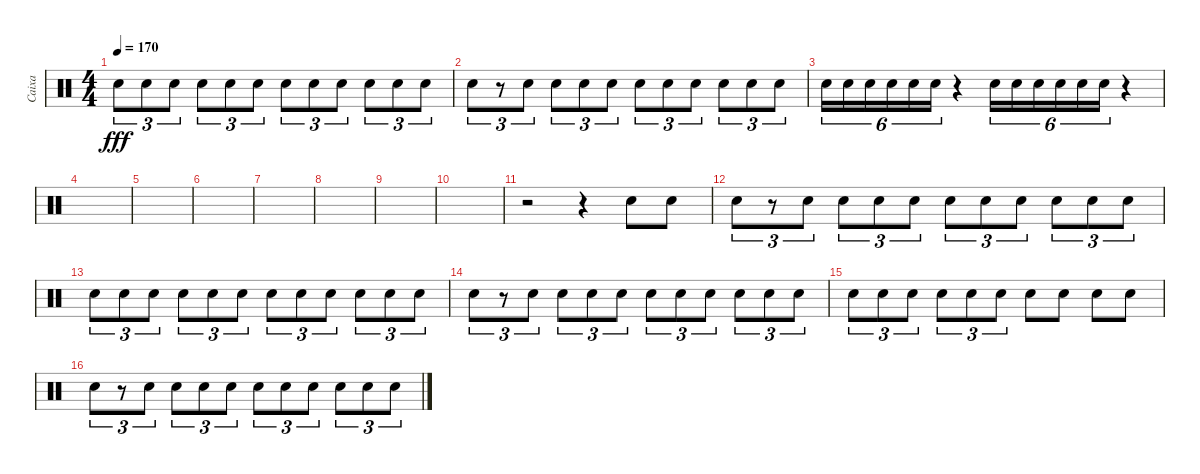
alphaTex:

\track ("Caixa" "Caixa") {instrument percussion}
\staff {score}
\articulation defaults
\ts (4 4)
\tempo 170
\clef neutral
\ks c "Electric Snare (hit)".8{tu (3 2) dy fff} "Electric Snare (hit)".8{tu (3 2)} "Electric Snare (hit)".8{tu (3 2)} "Electric Snare (hit)".8{tu (3 2)} "Electric Snare (hit)".8{tu (3 2)} "Electric Snare (hit)".8{tu (3 2)} "Electric Snare (hit)".8{tu (3 2)} "Electric Snare (hit)".8{tu (3 2)} "Electric Snare (hit)".8{tu (3 2)} "Electric Snare (hit)".8{tu (3 2)} "Electric Snare (hit)".8{tu (3 2)} "Electric Snare (hit)".8{tu (3 2)}
|
"Electric Snare (hit)".8{tu (3 2)} r.8{tu (3 2)} "Electric Snare (hit)".8{tu (3 2)} "Electric Snare (hit)".8{tu (3 2)} "Electric Snare (hit)".8{tu (3 2)} "Electric Snare (hit)".8{tu (3 2)} "Electric Snare (hit)".8{tu (3 2)} "Electric Snare (hit)".8{tu (3 2)} "Electric Snare (hit)".8{tu (3 2)} "Electric Snare (hit)".8{tu (3 2)} "Electric Snare (hit)".8{tu (3 2)} "Electric Snare (hit)".8{tu (3 2)} |
"Electric Snare (hit)".16{tu (6 4)} "Electric Snare (hit)".16{tu (6 4)} "Electric Snare (hit)".16{tu (6 4)} "Electric Snare (hit)".16{tu (6 4)} "Electric Snare (hit)".16{tu (6 4)} "Electric Snare (hit)".16{tu (6 4)} r.4 "Electric Snare (hit)".16{tu (6 4)} "Electric Snare (hit)".16{tu (6 4)} "Electric Snare (hit)".16{tu (6 4)} "Electric Snare (hit)".16{tu (6 4)} "Electric Snare (hit)".16{tu (6 4)} "Electric Snare (hit)".16{tu (6 4)} r.4 |
|
|
|
|
|
|
|
r.2 r.4 "Electric Snare (hit)".8 "Electric Snare (hit)".8 |
"Electric Snare (hit)".8{tu (3 2)} r.8{tu (3 2)} "Electric Snare (hit)".8{tu (3 2)} "Electric Snare (hit)".8{tu (3 2)} "Electric Snare (hit)".8{tu (3 2)} "Electric Snare (hit)".8{tu (3 2)} "Electric Snare (hit)".8{tu (3 2)} "Electric Snare (hit)".8{tu (3 2)} "Electric Snare (hit)".8{tu (3 2)} "Electric Snare (hit)".8{tu (3 2)} "Electric Snare (hit)".8{tu (3 2)} "Electric Snare (hit)".8{tu (3 2)} |
"Electric Snare (hit)".8{tu (3 2)} "Electric Snare (hit)".8{tu (3 2)} "Electric Snare (hit)".8{tu (3 2)} "Electric Snare (hit)".8{tu (3 2)} "Electric Snare (hit)".8{tu (3 2)} "Electric Snare (hit)".8{tu (3 2)} "Electric Snare (hit)".8{tu (3 2)} "Electric Snare (hit)".8{tu (3 2)} "Electric Snare (hit)".8{tu (3 2)} "Electric Snare (hit)".8{tu (3 2)} "Electric Snare (hit)".8{tu (3 2)} "Electric Snare (hit)".8{tu (3 2)} |
"Electric Snare (hit)".8{tu (3 2)} r.8{tu (3 2)} "Electric Snare (hit)".8{tu (3 2)} "Electric Snare (hit)".8{tu (3 2)} "Electric Snare (hit)".8{tu (3 2)} "Electric Snare (hit)".8{tu (3 2)} "Electric Snare (hit)".8{tu (3 2)} "Electric Snare (hit)".8{tu (3 2)} "Electric Snare (hit)".8{tu (3 2)} "Electric Snare (hit)".8{tu (3 2)} "Electric Snare (hit)".8{tu (3 2)} "Electric Snare (hit)".8{tu (3 2)} |
"Electric Snare (hit)".8{tu (3 2)} "Electric Snare (hit)".8{tu (3 2)} "Electric Snare (hit)".8{tu (3 2)} "Electric Snare (hit)".8{tu (3 2)} "Electric Snare (hit)".8{tu (3 2)} "Electric Snare (hit)".8{tu (3 2)} "Electric Snare (hit)".8 "Electric Snare (hit)".8 "Electric Snare (hit)".8 "Electric Snare (hit)".8 |
"Electric Snare (hit)".8{tu (3 2)} r.8{tu (3 2)} "Electric Snare (hit)".8{tu (3 2)} "Electric Snare (hit)".8{tu (3 2)} "Electric Snare (hit)".8{tu (3 2)} "Electric Snare (hit)".8{tu (3 2)} "Electric Snare (hit)".8{tu (3 2)} "Electric Snare (hit)".8{tu (3 2)} "Electric Snare (hit)".8{tu (3 2)} "Electric Snare (hit)".8{tu (3 2)} "Electric Snare (hit)".8{tu (3 2)} "Electric Snare (hit)".8{tu (3 2)}
